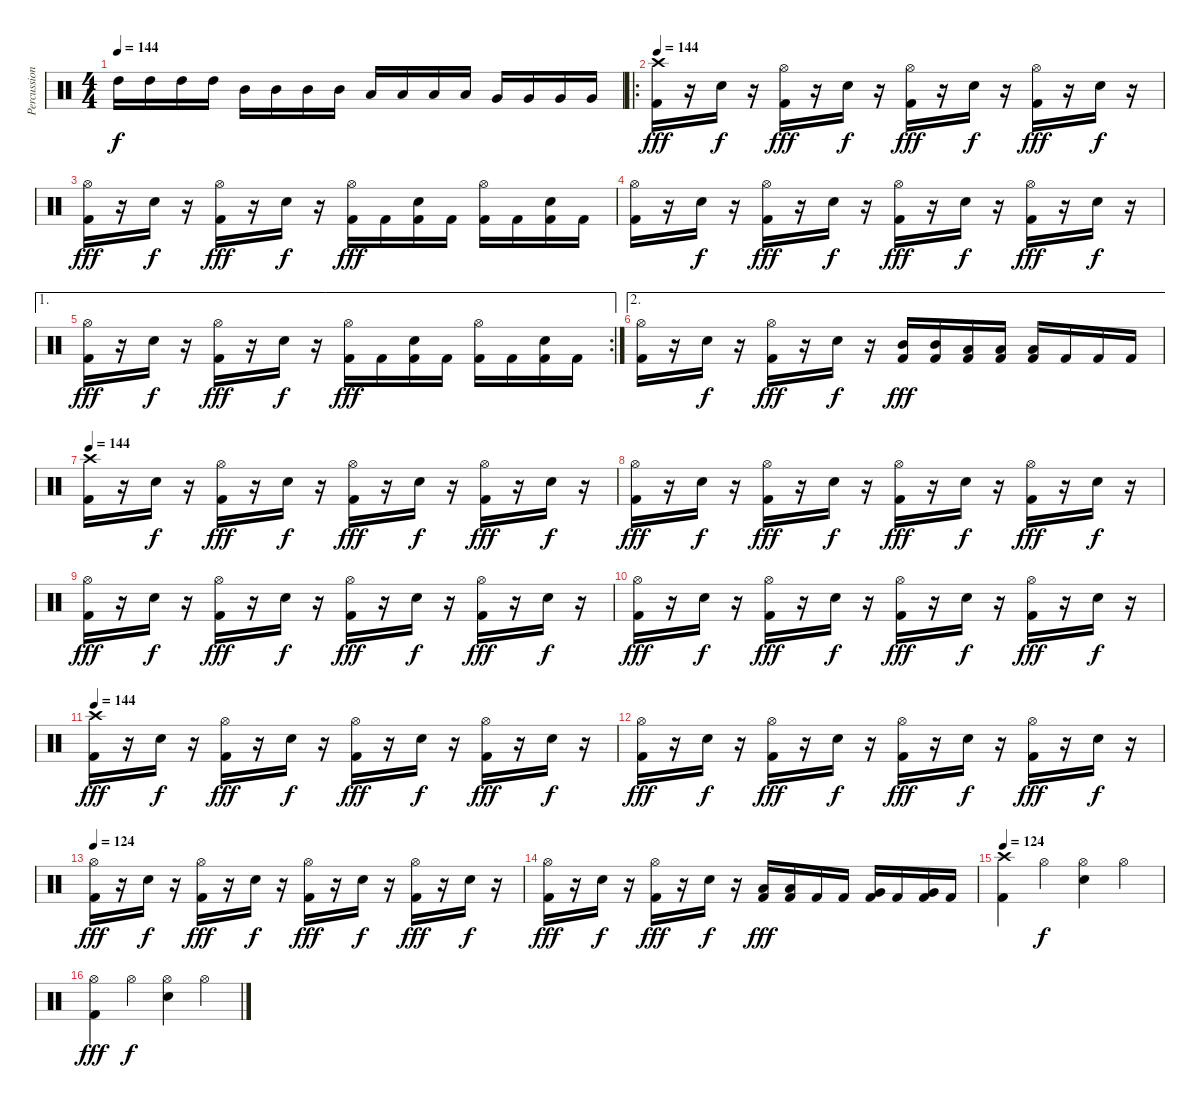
\track ("Percussion" "Percussion") {instrument percussion}
\staff {score}
\articulation defaults
\ts (4 4)
\tempo 144
\clef neutral
\ks c "High Tom (hit)".16{dy f} "High Tom (hit)".16 "High Tom (hit)".16 "High Tom (hit)".16 "Mid Tom (hit)".16 "Mid Tom (hit)".16 "Mid Tom (hit)".16 "Mid Tom (hit)".16 "Low Tom (hit)".16 "Low Tom (hit)".16 "Low Tom (hit)".16 "Low Tom (hit)".16 "Very Low Tom (hit)".16 "Very Low Tom (hit)".16 "Very Low Tom (hit)".16 "Very Low Tom (hit)".16
|
\ro
\tempo 144
("Crash high (hit)" "Kick (hit) 2").16{dy fff} r.16 "Snare (hit) 2".16{dy f} r.16 ("Hi-Hat (open)" "Kick (hit) 2").16{dy fff} r.16 "Snare (hit) 2".16{dy f} r.16 ("Hi-Hat (open)" "Kick (hit) 2").16{dy fff} r.16 "Snare (hit) 2".16{dy f} r.16 ("Hi-Hat (open)" "Kick (hit) 2").16{dy fff} r.16 "Snare (hit) 2".16{dy f} r.16 |
("Hi-Hat (open)" "Kick (hit) 2").16{dy fff} r.16 "Snare (hit) 2".16{dy f} r.16 ("Hi-Hat (open)" "Kick (hit) 2").16{dy fff} r.16 "Snare (hit) 2".16{dy f} r.16 ("Hi-Hat (open)" "Kick (hit) 2").16{dy fff} "Kick (hit) 2".16 ("Snare (hit) 2" "Kick (hit) 2").16 "Kick (hit) 2".16 ("Hi-Hat (open)" "Kick (hit) 2").16 "Kick (hit) 2".16 ("Snare (hit) 2" "Kick (hit) 2").16 "Kick (hit) 2".16 |
("Hi-Hat (open)" "Kick (hit) 2").16 r.16 "Snare (hit) 2".16{dy f} r.16 ("Hi-Hat (open)" "Kick (hit) 2").16{dy fff} r.16 "Snare (hit) 2".16{dy f} r.16 ("Hi-Hat (open)" "Kick (hit) 2").16{dy fff} r.16 "Snare (hit) 2".16{dy f} r.16 ("Hi-Hat (open)" "Kick (hit) 2").16{dy fff} r.16 "Snare (hit) 2".16{dy f} r.16 |
\ae 1
\rc 2
("Hi-Hat (open)" "Kick (hit) 2").16{dy fff} r.16 "Snare (hit) 2".16{dy f} r.16 ("Hi-Hat (open)" "Kick (hit) 2").16{dy fff} r.16 "Snare (hit) 2".16{dy f} r.16 ("Hi-Hat (open)" "Kick (hit) 2").16{dy fff} "Kick (hit) 2".16 ("Snare (hit) 2" "Kick (hit) 2").16 "Kick (hit) 2".16 ("Hi-Hat (open)" "Kick (hit) 2").16 "Kick (hit) 2".16 ("Snare (hit) 2" "Kick (hit) 2").16 "Kick (hit) 2".16 |
\ae 2
("Hi-Hat (open)" "Kick (hit) 2").16 r.16 "Snare (hit) 2".16{dy f} r.16 ("Hi-Hat (open)" "Kick (hit) 2").16{dy fff} r.16 "Snare (hit) 2".16{dy f} r.16 ("Mid Tom (hit)" "Kick (hit) 2").16{dy fff} ("Mid Tom (hit)" "Kick (hit) 2").16 ("Low Tom (hit)" "Kick (hit) 2").16 ("Low Tom (hit)" "Kick (hit) 2").16 ("Low Tom (hit)" "Kick (hit) 2").16 "Kick (hit) 2".16 "Kick (hit) 2".16 "Kick (hit) 2".16 |
\tempo 144
("Crash high (hit)" "Kick (hit) 2").16 r.16 "Snare (hit) 2".16{dy f} r.16 ("Hi-Hat (open)" "Kick (hit) 2").16{dy fff} r.16 "Snare (hit) 2".16{dy f} r.16 ("Hi-Hat (open)" "Kick (hit) 2").16{dy fff} r.16 "Snare (hit) 2".16{dy f} r.16 ("Hi-Hat (open)" "Kick (hit) 2").16{dy fff} r.16 "Snare (hit) 2".16{dy f} r.16 |
("Hi-Hat (open)" "Kick (hit) 2").16{dy fff} r.16 "Snare (hit) 2".16{dy f} r.16 ("Hi-Hat (open)" "Kick (hit) 2").16{dy fff} r.16 "Snare (hit) 2".16{dy f} r.16 ("Hi-Hat (open)" "Kick (hit) 2").16{dy fff} r.16 "Snare (hit) 2".16{dy f} r.16 ("Hi-Hat (open)" "Kick (hit) 2").16{dy fff} r.16 "Snare (hit) 2".16{dy f} r.16 |
("Hi-Hat (open)" "Kick (hit) 2").16{dy fff} r.16 "Snare (hit) 2".16{dy f} r.16 ("Hi-Hat (open)" "Kick (hit) 2").16{dy fff} r.16 "Snare (hit) 2".16{dy f} r.16 ("Hi-Hat (open)" "Kick (hit) 2").16{dy fff} r.16 "Snare (hit) 2".16{dy f} r.16 ("Hi-Hat (open)" "Kick (hit) 2").16{dy fff} r.16 "Snare (hit) 2".16{dy f} r.16 |
("Hi-Hat (open)" "Kick (hit) 2").16{dy fff} r.16 "Snare (hit) 2".16{dy f} r.16 ("Hi-Hat (open)" "Kick (hit) 2").16{dy fff} r.16 "Snare (hit) 2".16{dy f} r.16 ("Hi-Hat (open)" "Kick (hit) 2").16{dy fff} r.16 "Snare (hit) 2".16{dy f} r.16 ("Hi-Hat (open)" "Kick (hit) 2").16{dy fff} r.16 "Snare (hit) 2".16{dy f} r.16 |
\tempo 144
("Crash high (hit)" "Kick (hit) 2").16{dy fff} r.16 "Snare (hit) 2".16{dy f} r.16 ("Hi-Hat (open)" "Kick (hit) 2").16{dy fff} r.16 "Snare (hit) 2".16{dy f} r.16 ("Hi-Hat (open)" "Kick (hit) 2").16{dy fff} r.16 "Snare (hit) 2".16{dy f} r.16 ("Hi-Hat (open)" "Kick (hit) 2").16{dy fff} r.16 "Snare (hit) 2".16{dy f} r.16 |
("Hi-Hat (open)" "Kick (hit) 2").16{dy fff} r.16 "Snare (hit) 2".16{dy f} r.16 ("Hi-Hat (open)" "Kick (hit) 2").16{dy fff} r.16 "Snare (hit) 2".16{dy f} r.16 ("Hi-Hat (open)" "Kick (hit) 2").16{dy fff} r.16 "Snare (hit) 2".16{dy f} r.16 ("Hi-Hat (open)" "Kick (hit) 2").16{dy fff} r.16 "Snare (hit) 2".16{dy f} r.16 |
\tempo 124
("Hi-Hat (open)" "Kick (hit) 2").16{dy fff} r.16 "Snare (hit) 2".16{dy f} r.16 ("Hi-Hat (open)" "Kick (hit) 2").16{dy fff} r.16 "Snare (hit) 2".16{dy f} r.16 ("Hi-Hat (open)" "Kick (hit) 2").16{dy fff} r.16 "Snare (hit) 2".16{dy f} r.16 ("Hi-Hat (open)" "Kick (hit) 2").16{dy fff} r.16 "Snare (hit) 2".16{dy f} r.16 |
("Hi-Hat (open)" "Kick (hit) 2").16{dy fff} r.16 "Snare (hit) 2".16{dy f} r.16 ("Hi-Hat (open)" "Kick (hit) 2").16{dy fff} r.16 "Snare (hit) 2".16{dy f} r.16 ("Low Tom (hit)" "Kick (hit) 2").16{dy fff} ("Low Tom (hit)" "Kick (hit) 2").16 "Kick (hit) 2".16 "Kick (hit) 2".16 ("Very Low Tom (hit)" "Kick (hit) 2").16 "Kick (hit) 2".16 ("Very Low Tom (hit)" "Kick (hit) 2").16 "Kick (hit) 2".16 |
\tempo 124
("Crash high (hit)" "Kick (hit) 2").4 "Hi-Hat (open)".4{dy f} ("Hi-Hat (open)" "Snare (hit) 2").4 "Hi-Hat (open)".4 |
("Hi-Hat (open)" "Kick (hit) 2").4{dy fff} "Hi-Hat (open)".4{dy f} ("Hi-Hat (open)" "Snare (hit) 2").4 "Hi-Hat (open)".4
